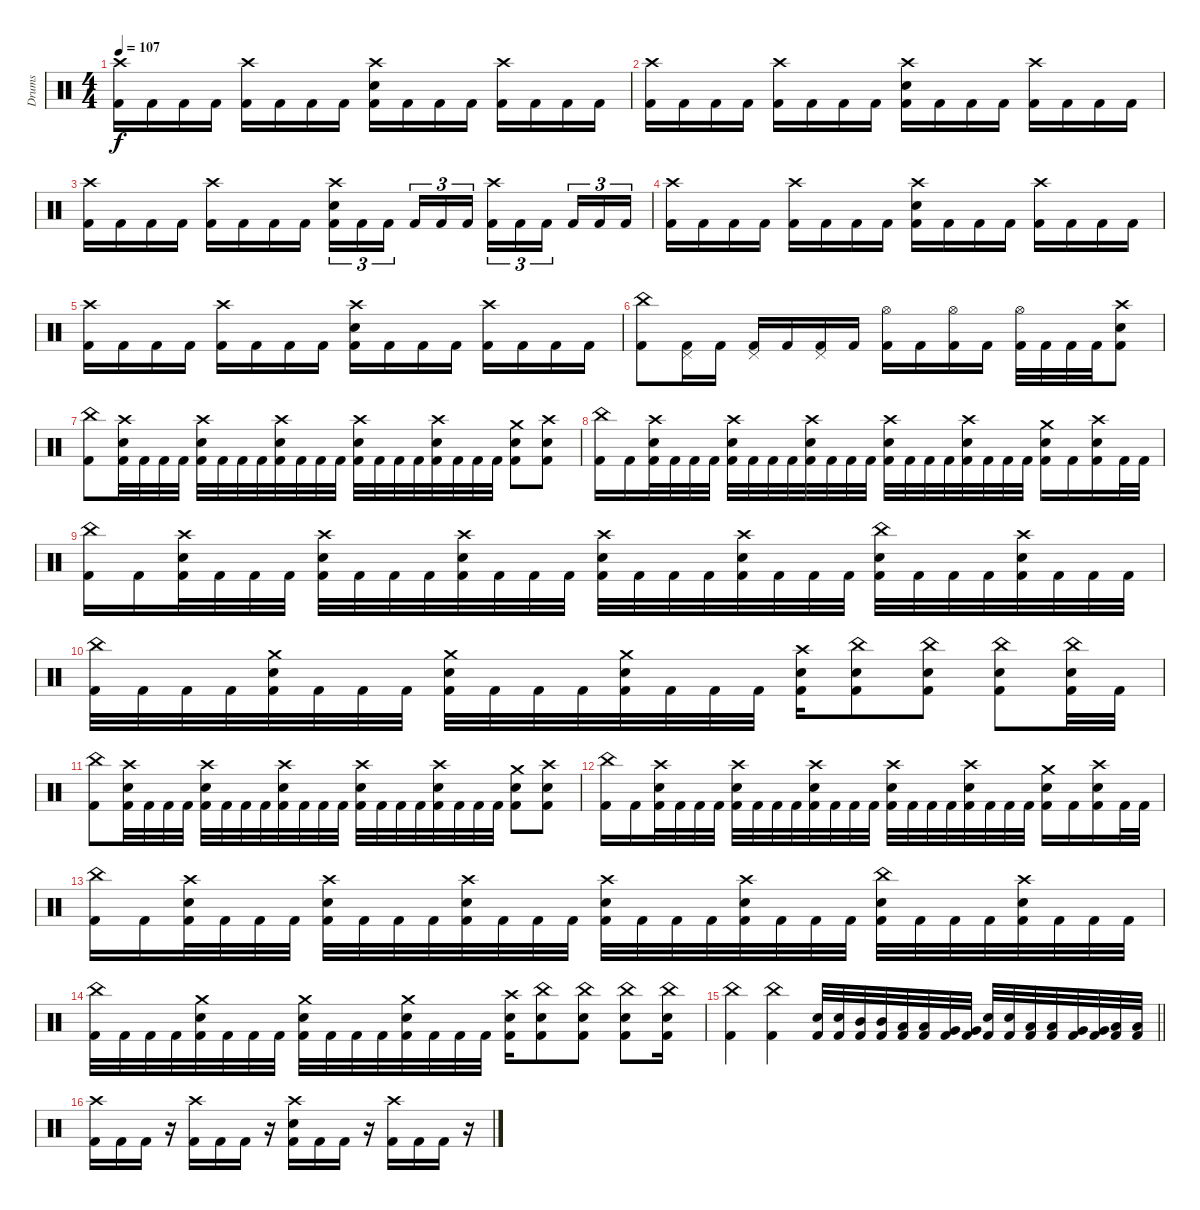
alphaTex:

\track ("Drums" "Drums") {instrument percussion}
\staff
\articulation defaults
\ts (4 4)
\tempo 107
\clef neutral
\ks c
("Crash high (hit)" "Kick (hit) 2").16{dy f} "Kick (hit) 2".16 "Kick (hit) 2".16 "Kick (hit) 2".16 ("Crash high (hit)" "Kick (hit) 2").16 "Kick (hit) 2".16 "Kick (hit) 2".16 "Kick (hit) 2".16 ("Crash high (hit)" "Electric Snare (hit)" "Kick (hit) 2").16 "Kick (hit) 2".16 "Kick (hit) 2".16 "Kick (hit) 2".16 ("Crash high (hit)" "Kick (hit) 2").16 "Kick (hit) 2".16 "Kick (hit) 2".16 "Kick (hit) 2".16 |
("Crash high (hit)" "Kick (hit) 2").16 "Kick (hit) 2".16 "Kick (hit) 2".16 "Kick (hit) 2".16 ("Crash high (hit)" "Kick (hit) 2").16 "Kick (hit) 2".16 "Kick (hit) 2".16 "Kick (hit) 2".16 ("Crash high (hit)" "Electric Snare (hit)" "Kick (hit) 2").16 "Kick (hit) 2".16 "Kick (hit) 2".16 "Kick (hit) 2".16 ("Crash high (hit)" "Kick (hit) 2").16 "Kick (hit) 2".16 "Kick (hit) 2".16 "Kick (hit) 2".16 |
("Crash high (hit)" "Kick (hit) 2").16 "Kick (hit) 2".16 "Kick (hit) 2".16 "Kick (hit) 2".16 ("Crash high (hit)" "Kick (hit) 2").16 "Kick (hit) 2".16 "Kick (hit) 2".16 "Kick (hit) 2".16 ("Crash high (hit)" "Electric Snare (hit)" "Kick (hit) 2").16{tu (3 2)} "Kick (hit) 2".16{tu (3 2)} "Kick (hit) 2".16{tu (3 2) beam splitsecondary} "Kick (hit) 2".16{tu (3 2)} "Kick (hit) 2".16{tu (3 2)} "Kick (hit) 2".16{tu (3 2)} ("Crash high (hit)" "Kick (hit) 2").16{tu (3 2)} "Kick (hit) 2".16{tu (3 2)} "Kick (hit) 2".16{tu (3 2) beam splitsecondary} "Kick (hit) 2".16{tu (3 2)} "Kick (hit) 2".16{tu (3 2)} "Kick (hit) 2".16{tu (3 2)} |
("Crash high (hit)" "Kick (hit) 2").16 "Kick (hit) 2".16 "Kick (hit) 2".16 "Kick (hit) 2".16 ("Crash high (hit)" "Kick (hit) 2").16 "Kick (hit) 2".16 "Kick (hit) 2".16 "Kick (hit) 2".16 ("Crash high (hit)" "Electric Snare (hit)" "Kick (hit) 2").16 "Kick (hit) 2".16 "Kick (hit) 2".16 "Kick (hit) 2".16 ("Crash high (hit)" "Kick (hit) 2").16 "Kick (hit) 2".16 "Kick (hit) 2".16 "Kick (hit) 2".16 |
("Crash high (hit)" "Kick (hit) 2").16 "Kick (hit) 2".16 "Kick (hit) 2".16 "Kick (hit) 2".16 ("Crash high (hit)" "Kick (hit) 2").16 "Kick (hit) 2".16 "Kick (hit) 2".16 "Kick (hit) 2".16 ("Crash high (hit)" "Electric Snare (hit)" "Kick (hit) 2").16 "Kick (hit) 2".16 "Kick (hit) 2".16 "Kick (hit) 2".16 ("Crash high (hit)" "Kick (hit) 2").16 "Kick (hit) 2".16 "Kick (hit) 2".16 "Kick (hit) 2".16 |
("China (hit)" "Kick (hit) 2").8 ("Pedal Hi-Hat (hit)" "Kick (hit) 2").16 "Kick (hit) 2".16 ("Pedal Hi-Hat (hit)" "Kick (hit) 2").16 "Kick (hit) 2".16 ("Pedal Hi-Hat (hit)" "Kick (hit) 2").16 "Kick (hit) 2".16 ("Hi-Hat (open)" "Kick (hit) 2").16 "Kick (hit) 2".16 ("Hi-Hat (open)" "Kick (hit) 2").16 "Kick (hit) 2".16 ("Hi-Hat (open)" "Kick (hit) 2").32 "Kick (hit) 2".32 "Kick (hit) 2".32 "Kick (hit) 2".32 ("Crash high (hit)" "Electric Snare (hit)" "Kick (hit) 2").8 |
("China (hit)" "Kick (hit) 2").8 ("Crash high (hit)" "Electric Snare (hit)" "Kick (hit) 2").32 "Kick (hit) 2".32 "Kick (hit) 2".32 "Kick (hit) 2".32 ("Crash high (hit)" "Electric Snare (hit)" "Kick (hit) 2").32 "Kick (hit) 2".32 "Kick (hit) 2".32 "Kick (hit) 2".32 ("Crash high (hit)" "Electric Snare (hit)" "Kick (hit) 2").32 "Kick (hit) 2".32 "Kick (hit) 2".32 "Kick (hit) 2".32 ("Crash high (hit)" "Electric Snare (hit)" "Kick (hit) 2").32 "Kick (hit) 2".32 "Kick (hit) 2".32 "Kick (hit) 2".32 ("Crash high (hit)" "Electric Snare (hit)" "Kick (hit) 2").32 "Kick (hit) 2".32 "Kick (hit) 2".32 "Kick (hit) 2".32 ("Crash medium (hit)" "Electric Snare (hit)" "Kick (hit) 2").8 ("Crash high (hit)" "Electric Snare (hit)" "Kick (hit) 2").8 |
("China (hit)" "Kick (hit) 2").16 "Kick (hit) 2".16 ("Crash high (hit)" "Electric Snare (hit)" "Kick (hit) 2").32 "Kick (hit) 2".32 "Kick (hit) 2".32 "Kick (hit) 2".32 ("Crash high (hit)" "Electric Snare (hit)" "Kick (hit) 2").32 "Kick (hit) 2".32 "Kick (hit) 2".32 "Kick (hit) 2".32 ("Crash high (hit)" "Electric Snare (hit)" "Kick (hit) 2").32 "Kick (hit) 2".32 "Kick (hit) 2".32 "Kick (hit) 2".32 ("Crash high (hit)" "Electric Snare (hit)" "Kick (hit) 2").32 "Kick (hit) 2".32 "Kick (hit) 2".32 "Kick (hit) 2".32 ("Crash high (hit)" "Electric Snare (hit)" "Kick (hit) 2").32 "Kick (hit) 2".32 "Kick (hit) 2".32 "Kick (hit) 2".32 ("Crash medium (hit)" "Electric Snare (hit)" "Kick (hit) 2").16 "Kick (hit) 2".16 ("Crash high (hit)" "Electric Snare (hit)" "Kick (hit) 2").16 "Kick (hit) 2".32 "Kick (hit) 2".32 |
("China (hit)" "Kick (hit) 2").16 "Kick (hit) 2".16 ("Crash high (hit)" "Electric Snare (hit)" "Kick (hit) 2").32 "Kick (hit) 2".32 "Kick (hit) 2".32 "Kick (hit) 2".32 ("Crash high (hit)" "Electric Snare (hit)" "Kick (hit) 2").32 "Kick (hit) 2".32 "Kick (hit) 2".32 "Kick (hit) 2".32 ("Crash high (hit)" "Electric Snare (hit)" "Kick (hit) 2").32 "Kick (hit) 2".32 "Kick (hit) 2".32 "Kick (hit) 2".32 ("Crash high (hit)" "Electric Snare (hit)" "Kick (hit) 2").32 "Kick (hit) 2".32 "Kick (hit) 2".32 "Kick (hit) 2".32 ("Crash high (hit)" "Electric Snare (hit)" "Kick (hit) 2").32 "Kick (hit) 2".32 "Kick (hit) 2".32 "Kick (hit) 2".32 ("China (hit)" "Electric Snare (hit)" "Kick (hit) 2").32 "Kick (hit) 2".32 "Kick (hit) 2".32 "Kick (hit) 2".32 ("Crash high (hit)" "Electric Snare (hit)" "Kick (hit) 2").32 "Kick (hit) 2".32 "Kick (hit) 2".32 "Kick (hit) 2".32 |
("China (hit)" "Kick (hit) 2").32 "Kick (hit) 2".32 "Kick (hit) 2".32 "Kick (hit) 2".32 ("Crash medium (hit)" "Electric Snare (hit)" "Kick (hit) 2").32 "Kick (hit) 2".32 "Kick (hit) 2".32 "Kick (hit) 2".32 ("Crash medium (hit)" "Electric Snare (hit)" "Kick (hit) 2").32 "Kick (hit) 2".32 "Kick (hit) 2".32 "Kick (hit) 2".32 ("Crash medium (hit)" "Electric Snare (hit)" "Kick (hit) 2").32 "Kick (hit) 2".32 "Kick (hit) 2".32 "Kick (hit) 2".32 ("Crash high (hit)" "Electric Snare (hit)" "Kick (hit) 2").16 ("China (hit)" "Electric Snare (hit)" "Kick (hit) 2").8 ("China (hit)" "Electric Snare (hit)" "Kick (hit) 2").8 ("China (hit)" "Electric Snare (hit)" "Kick (hit) 2").8 ("China (hit)" "Electric Snare (hit)" "Kick (hit) 2").32 "Kick (hit) 2".32 |
("China (hit)" "Kick (hit) 2").8 ("Crash high (hit)" "Electric Snare (hit)" "Kick (hit) 2").32 "Kick (hit) 2".32 "Kick (hit) 2".32 "Kick (hit) 2".32 ("Crash high (hit)" "Electric Snare (hit)" "Kick (hit) 2").32 "Kick (hit) 2".32 "Kick (hit) 2".32 "Kick (hit) 2".32 ("Crash high (hit)" "Electric Snare (hit)" "Kick (hit) 2").32 "Kick (hit) 2".32 "Kick (hit) 2".32 "Kick (hit) 2".32 ("Crash high (hit)" "Electric Snare (hit)" "Kick (hit) 2").32 "Kick (hit) 2".32 "Kick (hit) 2".32 "Kick (hit) 2".32 ("Crash high (hit)" "Electric Snare (hit)" "Kick (hit) 2").32 "Kick (hit) 2".32 "Kick (hit) 2".32 "Kick (hit) 2".32 ("Crash medium (hit)" "Electric Snare (hit)" "Kick (hit) 2").8 ("Crash high (hit)" "Electric Snare (hit)" "Kick (hit) 2").8 |
("China (hit)" "Kick (hit) 2").16 "Kick (hit) 2".16 ("Crash high (hit)" "Electric Snare (hit)" "Kick (hit) 2").32 "Kick (hit) 2".32 "Kick (hit) 2".32 "Kick (hit) 2".32 ("Crash high (hit)" "Electric Snare (hit)" "Kick (hit) 2").32 "Kick (hit) 2".32 "Kick (hit) 2".32 "Kick (hit) 2".32 ("Crash high (hit)" "Electric Snare (hit)" "Kick (hit) 2").32 "Kick (hit) 2".32 "Kick (hit) 2".32 "Kick (hit) 2".32 ("Crash high (hit)" "Electric Snare (hit)" "Kick (hit) 2").32 "Kick (hit) 2".32 "Kick (hit) 2".32 "Kick (hit) 2".32 ("Crash high (hit)" "Electric Snare (hit)" "Kick (hit) 2").32 "Kick (hit) 2".32 "Kick (hit) 2".32 "Kick (hit) 2".32 ("Crash medium (hit)" "Electric Snare (hit)" "Kick (hit) 2").16 "Kick (hit) 2".16 ("Crash high (hit)" "Electric Snare (hit)" "Kick (hit) 2").16 "Kick (hit) 2".32 "Kick (hit) 2".32 |
("China (hit)" "Kick (hit) 2").16 "Kick (hit) 2".16 ("Crash high (hit)" "Electric Snare (hit)" "Kick (hit) 2").32 "Kick (hit) 2".32 "Kick (hit) 2".32 "Kick (hit) 2".32 ("Crash high (hit)" "Electric Snare (hit)" "Kick (hit) 2").32 "Kick (hit) 2".32 "Kick (hit) 2".32 "Kick (hit) 2".32 ("Crash high (hit)" "Electric Snare (hit)" "Kick (hit) 2").32 "Kick (hit) 2".32 "Kick (hit) 2".32 "Kick (hit) 2".32 ("Crash high (hit)" "Electric Snare (hit)" "Kick (hit) 2").32 "Kick (hit) 2".32 "Kick (hit) 2".32 "Kick (hit) 2".32 ("Crash high (hit)" "Electric Snare (hit)" "Kick (hit) 2").32 "Kick (hit) 2".32 "Kick (hit) 2".32 "Kick (hit) 2".32 ("China (hit)" "Electric Snare (hit)" "Kick (hit) 2").32 "Kick (hit) 2".32 "Kick (hit) 2".32 "Kick (hit) 2".32 ("Crash high (hit)" "Electric Snare (hit)" "Kick (hit) 2").32 "Kick (hit) 2".32 "Kick (hit) 2".32 "Kick (hit) 2".32 |
("China (hit)" "Kick (hit) 2").32 "Kick (hit) 2".32 "Kick (hit) 2".32 "Kick (hit) 2".32 ("Crash medium (hit)" "Electric Snare (hit)" "Kick (hit) 2").32 "Kick (hit) 2".32 "Kick (hit) 2".32 "Kick (hit) 2".32 ("Crash medium (hit)" "Electric Snare (hit)" "Kick (hit) 2").32 "Kick (hit) 2".32 "Kick (hit) 2".32 "Kick (hit) 2".32 ("Crash medium (hit)" "Electric Snare (hit)" "Kick (hit) 2").32 "Kick (hit) 2".32 "Kick (hit) 2".32 "Kick (hit) 2".32 ("Crash high (hit)" "Electric Snare (hit)" "Kick (hit) 2").16 ("China (hit)" "Electric Snare (hit)" "Kick (hit) 2").8 ("China (hit)" "Electric Snare (hit)" "Kick (hit) 2").8 ("China (hit)" "Electric Snare (hit)" "Kick (hit) 2").8 ("China (hit)" "Electric Snare (hit)" "Kick (hit) 2").16 |
\barLineRight lightlight
("China (hit)" "Kick (hit) 2").4 ("China (hit)" "Kick (hit) 2").4 ("Electric Snare (hit)" "Kick (hit) 2").32 ("Electric Snare (hit)" "Kick (hit) 2").32 ("Mid Tom (hit)" "Kick (hit) 2").32 ("Mid Tom (hit)" "Kick (hit) 2").32 ("Low Tom (hit)" "Kick (hit) 2").32 ("Low Tom (hit)" "Kick (hit) 2").32 ("Very Low Tom (hit)" "Kick (hit) 2").32 ("Very Low Tom (hit)" "Kick (hit) 2").32 ("Electric Snare (hit)" "Kick (hit) 2").32 ("Electric Snare (hit)" "Kick (hit) 2").32 ("Low Tom (hit)" "Kick (hit) 2").32 ("Low Tom (hit)" "Kick (hit) 2").32 ("Very Low Tom (hit)" "Kick (hit) 2").32 ("Very Low Tom (hit)" "Kick (hit) 2").32 ("Low Floor Tom (hit)" "Kick (hit) 2").32 ("Low Floor Tom (hit)" "Kick (hit) 2").32 |
("Crash high (hit)" "Kick (hit) 2").16 "Kick (hit) 2".16 "Kick (hit) 2".16 r.16 ("Crash high (hit)" "Kick (hit) 2").16 "Kick (hit) 2".16 "Kick (hit) 2".16 r.16 ("Crash high (hit)" "Electric Snare (hit)" "Kick (hit) 2").16 "Kick (hit) 2".16 "Kick (hit) 2".16 r.16 ("Crash high (hit)" "Kick (hit) 2").16 "Kick (hit) 2".16 "Kick (hit) 2".16 r.16
